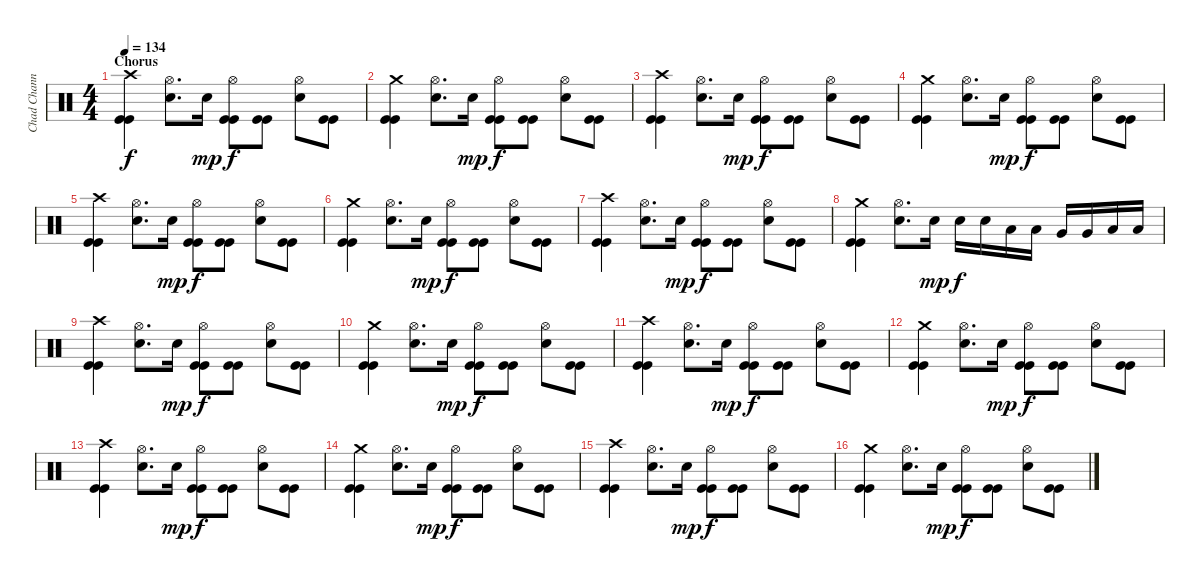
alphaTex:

\track ("Chad Channing" "Chad Chann") {instrument percussion}
\staff {score}
\articulation defaults
\ts (4 4)
\section ("" "Chorus")
\tempo 134
\clef neutral
\ks c
("Crash high (hit)" "Kick (hit)" "Kick (hit)").4{dy f} ("Hi-Hat (open)" "Electric Snare (hit)").8{d} "Electric Snare (hit)".16{dy mp} ("Hi-Hat (open)" "Kick (hit)" "Kick (hit)").8{dy f} ("Kick (hit)" "Kick (hit)").8 ("Hi-Hat (open)" "Electric Snare (hit)").8 ("Kick (hit)" "Kick (hit)").8 |
("Crash medium (hit)" "Kick (hit)" "Kick (hit)").4 ("Hi-Hat (open)" "Electric Snare (hit)").8{d} "Electric Snare (hit)".16{dy mp} ("Hi-Hat (open)" "Kick (hit)" "Kick (hit)").8{dy f} ("Kick (hit)" "Kick (hit)").8 ("Hi-Hat (open)" "Electric Snare (hit)").8 ("Kick (hit)" "Kick (hit)").8 |
("Crash high (hit)" "Kick (hit)" "Kick (hit)").4 ("Hi-Hat (open)" "Electric Snare (hit)").8{d} "Electric Snare (hit)".16{dy mp} ("Hi-Hat (open)" "Kick (hit)" "Kick (hit)").8{dy f} ("Kick (hit)" "Kick (hit)").8 ("Hi-Hat (open)" "Electric Snare (hit)").8 ("Kick (hit)" "Kick (hit)").8 |
("Crash medium (hit)" "Kick (hit)" "Kick (hit)").4 ("Hi-Hat (open)" "Electric Snare (hit)").8{d} "Electric Snare (hit)".16{dy mp} ("Hi-Hat (open)" "Kick (hit)" "Kick (hit)").8{dy f} ("Kick (hit)" "Kick (hit)").8 ("Hi-Hat (open)" "Electric Snare (hit)").8 ("Kick (hit)" "Kick (hit)").8 |
("Crash high (hit)" "Kick (hit)" "Kick (hit)").4 ("Hi-Hat (open)" "Electric Snare (hit)").8{d} "Electric Snare (hit)".16{dy mp} ("Hi-Hat (open)" "Kick (hit)" "Kick (hit)").8{dy f} ("Kick (hit)" "Kick (hit)").8 ("Hi-Hat (open)" "Electric Snare (hit)").8 ("Kick (hit)" "Kick (hit)").8 |
("Crash medium (hit)" "Kick (hit)" "Kick (hit)").4 ("Hi-Hat (open)" "Electric Snare (hit)").8{d} "Electric Snare (hit)".16{dy mp} ("Hi-Hat (open)" "Kick (hit)" "Kick (hit)").8{dy f} ("Kick (hit)" "Kick (hit)").8 ("Hi-Hat (open)" "Electric Snare (hit)").8 ("Kick (hit)" "Kick (hit)").8 |
("Crash high (hit)" "Kick (hit)" "Kick (hit)").4 ("Hi-Hat (open)" "Electric Snare (hit)").8{d} "Electric Snare (hit)".16{dy mp} ("Hi-Hat (open)" "Kick (hit)" "Kick (hit)").8{dy f} ("Kick (hit)" "Kick (hit)").8 ("Hi-Hat (open)" "Electric Snare (hit)").8 ("Kick (hit)" "Kick (hit)").8 |
("Crash medium (hit)" "Kick (hit)" "Kick (hit)").4 ("Hi-Hat (open)" "Electric Snare (hit)").8{d} "Electric Snare (hit)".16{dy mp} "Electric Snare (hit)".16{dy f} "Electric Snare (hit)".16 "Low Tom (hit)".16 "Low Tom (hit)".16 "Very Low Tom (hit)".16 "Very Low Tom (hit)".16 "Low Floor Tom (hit)".16 "Low Floor Tom (hit)".16 |
("Crash high (hit)" "Kick (hit)" "Kick (hit)").4 ("Hi-Hat (open)" "Electric Snare (hit)").8{d} "Electric Snare (hit)".16{dy mp} ("Hi-Hat (open)" "Kick (hit)" "Kick (hit)").8{dy f} ("Kick (hit)" "Kick (hit)").8 ("Hi-Hat (open)" "Electric Snare (hit)").8 ("Kick (hit)" "Kick (hit)").8 |
("Crash medium (hit)" "Kick (hit)" "Kick (hit)").4 ("Hi-Hat (open)" "Electric Snare (hit)").8{d} "Electric Snare (hit)".16{dy mp} ("Hi-Hat (open)" "Kick (hit)" "Kick (hit)").8{dy f} ("Kick (hit)" "Kick (hit)").8 ("Hi-Hat (open)" "Electric Snare (hit)").8 ("Kick (hit)" "Kick (hit)").8 |
("Crash high (hit)" "Kick (hit)" "Kick (hit)").4 ("Hi-Hat (open)" "Electric Snare (hit)").8{d} "Electric Snare (hit)".16{dy mp} ("Hi-Hat (open)" "Kick (hit)" "Kick (hit)").8{dy f} ("Kick (hit)" "Kick (hit)").8 ("Hi-Hat (open)" "Electric Snare (hit)").8 ("Kick (hit)" "Kick (hit)").8 |
("Crash medium (hit)" "Kick (hit)" "Kick (hit)").4 ("Hi-Hat (open)" "Electric Snare (hit)").8{d} "Electric Snare (hit)".16{dy mp} ("Hi-Hat (open)" "Kick (hit)" "Kick (hit)").8{dy f} ("Kick (hit)" "Kick (hit)").8 ("Hi-Hat (open)" "Electric Snare (hit)").8 ("Kick (hit)" "Kick (hit)").8 |
("Crash high (hit)" "Kick (hit)" "Kick (hit)").4 ("Hi-Hat (open)" "Electric Snare (hit)").8{d} "Electric Snare (hit)".16{dy mp} ("Hi-Hat (open)" "Kick (hit)" "Kick (hit)").8{dy f} ("Kick (hit)" "Kick (hit)").8 ("Hi-Hat (open)" "Electric Snare (hit)").8 ("Kick (hit)" "Kick (hit)").8 |
("Crash medium (hit)" "Kick (hit)" "Kick (hit)").4 ("Hi-Hat (open)" "Electric Snare (hit)").8{d} "Electric Snare (hit)".16{dy mp} ("Hi-Hat (open)" "Kick (hit)" "Kick (hit)").8{dy f} ("Kick (hit)" "Kick (hit)").8 ("Hi-Hat (open)" "Electric Snare (hit)").8 ("Kick (hit)" "Kick (hit)").8 |
("Crash high (hit)" "Kick (hit)" "Kick (hit)").4 ("Hi-Hat (open)" "Electric Snare (hit)").8{d} "Electric Snare (hit)".16{dy mp} ("Hi-Hat (open)" "Kick (hit)" "Kick (hit)").8{dy f} ("Kick (hit)" "Kick (hit)").8 ("Hi-Hat (open)" "Electric Snare (hit)").8 ("Kick (hit)" "Kick (hit)").8 |
("Crash medium (hit)" "Kick (hit)" "Kick (hit)").4 ("Hi-Hat (open)" "Electric Snare (hit)").8{d} "Electric Snare (hit)".16{dy mp} ("Hi-Hat (open)" "Kick (hit)" "Kick (hit)").8{dy f} ("Kick (hit)" "Kick (hit)").8 ("Hi-Hat (open)" "Electric Snare (hit)").8 ("Kick (hit)" "Kick (hit)").8
